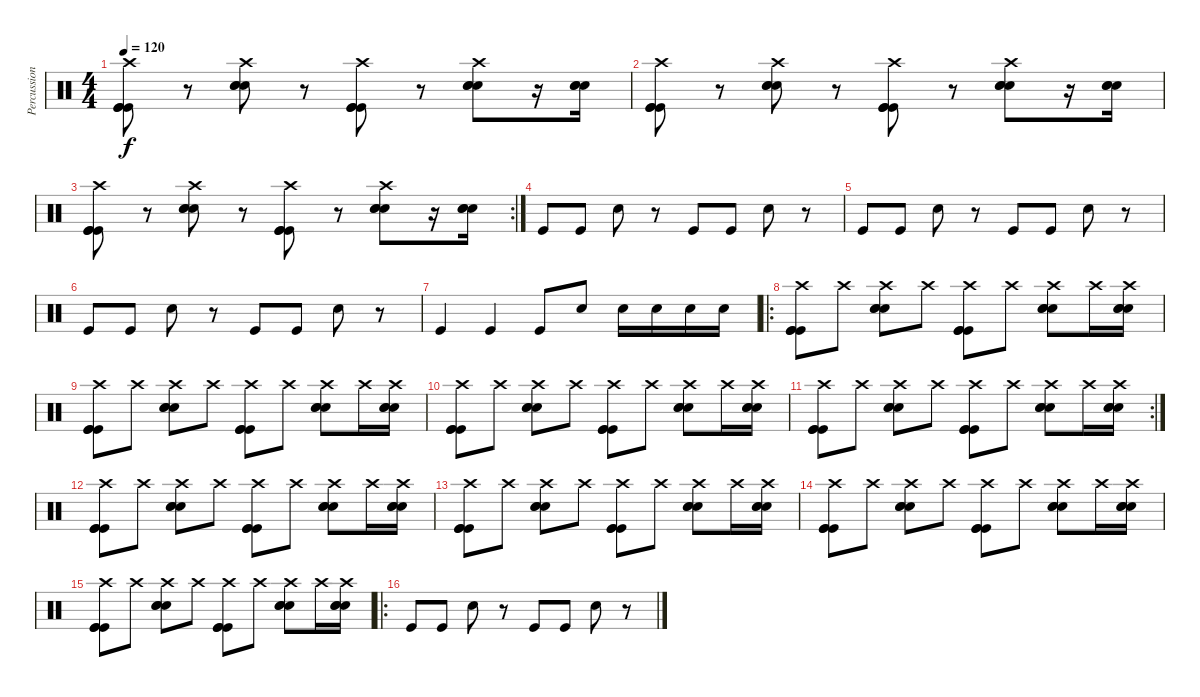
\track ("Percussions" "Percussion") {instrument percussion}
\staff {score}
\articulation defaults
\ts (4 4)
\tempo 120
\clef neutral
\ks c
("Crash high (hit)" "Kick (hit)" "Kick (hit)" "Kick (hit)").8{dy f} r.8 ("Crash high (hit)" "Electric Snare (hit)" "Electric Snare (hit)" "Electric Snare (hit)").8 r.8 ("Crash high (hit)" "Kick (hit)" "Kick (hit)" "Kick (hit)").8 r.8 ("Crash high (hit)" "Electric Snare (hit)" "Electric Snare (hit)" "Electric Snare (hit)").8 r.16 ("Electric Snare (hit)" "Electric Snare (hit)" "Electric Snare (hit)").16 |
("Crash high (hit)" "Kick (hit)" "Kick (hit)" "Kick (hit)").8 r.8 ("Crash high (hit)" "Electric Snare (hit)" "Electric Snare (hit)" "Electric Snare (hit)").8 r.8 ("Crash high (hit)" "Kick (hit)" "Kick (hit)" "Kick (hit)").8 r.8 ("Crash high (hit)" "Electric Snare (hit)" "Electric Snare (hit)" "Electric Snare (hit)").8 r.16 ("Electric Snare (hit)" "Electric Snare (hit)" "Electric Snare (hit)").16 |
\rc 2
("Crash high (hit)" "Kick (hit)" "Kick (hit)" "Kick (hit)").8 r.8 ("Crash high (hit)" "Electric Snare (hit)" "Electric Snare (hit)" "Electric Snare (hit)").8 r.8 ("Crash high (hit)" "Kick (hit)" "Kick (hit)" "Kick (hit)").8 r.8 ("Crash high (hit)" "Electric Snare (hit)" "Electric Snare (hit)" "Electric Snare (hit)").8 r.16 ("Electric Snare (hit)" "Electric Snare (hit)" "Electric Snare (hit)").16 |
"Kick (hit)".8 "Kick (hit)".8 "Electric Snare (hit)".8 r.8 "Kick (hit)".8 "Kick (hit)".8 "Electric Snare (hit)".8 r.8 |
"Kick (hit)".8 "Kick (hit)".8 "Electric Snare (hit)".8 r.8 "Kick (hit)".8 "Kick (hit)".8 "Electric Snare (hit)".8 r.8 |
"Kick (hit)".8 "Kick (hit)".8 "Electric Snare (hit)".8 r.8 "Kick (hit)".8 "Kick (hit)".8 "Electric Snare (hit)".8 r.8 |
"Kick (hit)".4 "Kick (hit)".4 "Kick (hit)".8 "Electric Snare (hit)".8 "Electric Snare (hit)".16 "Electric Snare (hit)".16 "Electric Snare (hit)".16 "Electric Snare (hit)".16 |
\ro
("Crash high (hit)" "Kick (hit)" "Kick (hit)" "Kick (hit)").8 "Crash high (hit)".8 ("Crash high (hit)" "Electric Snare (hit)" "Electric Snare (hit)" "Electric Snare (hit)").8 "Crash high (hit)".8 ("Crash high (hit)" "Kick (hit)" "Kick (hit)" "Kick (hit)").8 "Crash high (hit)".8 ("Crash high (hit)" "Electric Snare (hit)" "Electric Snare (hit)" "Electric Snare (hit)").8 "Crash high (hit)".16 ("Crash high (hit)" "Electric Snare (hit)" "Electric Snare (hit)" "Electric Snare (hit)").16 |
("Crash high (hit)" "Kick (hit)" "Kick (hit)" "Kick (hit)").8 "Crash high (hit)".8 ("Crash high (hit)" "Electric Snare (hit)" "Electric Snare (hit)" "Electric Snare (hit)").8 "Crash high (hit)".8 ("Crash high (hit)" "Kick (hit)" "Kick (hit)" "Kick (hit)").8 "Crash high (hit)".8 ("Crash high (hit)" "Electric Snare (hit)" "Electric Snare (hit)" "Electric Snare (hit)").8 "Crash high (hit)".16 ("Crash high (hit)" "Electric Snare (hit)" "Electric Snare (hit)" "Electric Snare (hit)").16 |
("Crash high (hit)" "Kick (hit)" "Kick (hit)" "Kick (hit)").8 "Crash high (hit)".8 ("Crash high (hit)" "Electric Snare (hit)" "Electric Snare (hit)" "Electric Snare (hit)").8 "Crash high (hit)".8 ("Crash high (hit)" "Kick (hit)" "Kick (hit)" "Kick (hit)").8 "Crash high (hit)".8 ("Crash high (hit)" "Electric Snare (hit)" "Electric Snare (hit)" "Electric Snare (hit)").8 "Crash high (hit)".16 ("Crash high (hit)" "Electric Snare (hit)" "Electric Snare (hit)" "Electric Snare (hit)").16 |
\rc 2
("Crash high (hit)" "Kick (hit)" "Kick (hit)" "Kick (hit)").8 "Crash high (hit)".8 ("Crash high (hit)" "Electric Snare (hit)" "Electric Snare (hit)" "Electric Snare (hit)").8 "Crash high (hit)".8 ("Crash high (hit)" "Kick (hit)" "Kick (hit)" "Kick (hit)").8 "Crash high (hit)".8 ("Crash high (hit)" "Electric Snare (hit)" "Electric Snare (hit)" "Electric Snare (hit)").8 "Crash high (hit)".16 ("Crash high (hit)" "Electric Snare (hit)" "Electric Snare (hit)" "Electric Snare (hit)").16 |
("Crash high (hit)" "Kick (hit)" "Kick (hit)" "Kick (hit)").8 "Crash high (hit)".8 ("Crash high (hit)" "Electric Snare (hit)" "Electric Snare (hit)" "Electric Snare (hit)").8 "Crash high (hit)".8 ("Crash high (hit)" "Kick (hit)" "Kick (hit)" "Kick (hit)").8 "Crash high (hit)".8 ("Crash high (hit)" "Electric Snare (hit)" "Electric Snare (hit)" "Electric Snare (hit)").8 "Crash high (hit)".16 ("Crash high (hit)" "Electric Snare (hit)" "Electric Snare (hit)" "Electric Snare (hit)").16 |
("Crash high (hit)" "Kick (hit)" "Kick (hit)" "Kick (hit)").8 "Crash high (hit)".8 ("Crash high (hit)" "Electric Snare (hit)" "Electric Snare (hit)" "Electric Snare (hit)").8 "Crash high (hit)".8 ("Crash high (hit)" "Kick (hit)" "Kick (hit)" "Kick (hit)").8 "Crash high (hit)".8 ("Crash high (hit)" "Electric Snare (hit)" "Electric Snare (hit)" "Electric Snare (hit)").8 "Crash high (hit)".16 ("Crash high (hit)" "Electric Snare (hit)" "Electric Snare (hit)" "Electric Snare (hit)").16 |
("Crash high (hit)" "Kick (hit)" "Kick (hit)" "Kick (hit)").8 "Crash high (hit)".8 ("Crash high (hit)" "Electric Snare (hit)" "Electric Snare (hit)" "Electric Snare (hit)").8 "Crash high (hit)".8 ("Crash high (hit)" "Kick (hit)" "Kick (hit)" "Kick (hit)").8 "Crash high (hit)".8 ("Crash high (hit)" "Electric Snare (hit)" "Electric Snare (hit)" "Electric Snare (hit)").8 "Crash high (hit)".16 ("Crash high (hit)" "Electric Snare (hit)" "Electric Snare (hit)" "Electric Snare (hit)").16 |
("Crash high (hit)" "Kick (hit)" "Kick (hit)" "Kick (hit)").8 "Crash high (hit)".8 ("Crash high (hit)" "Electric Snare (hit)" "Electric Snare (hit)" "Electric Snare (hit)").8 "Crash high (hit)".8 ("Crash high (hit)" "Kick (hit)" "Kick (hit)" "Kick (hit)").8 "Crash high (hit)".8 ("Crash high (hit)" "Electric Snare (hit)" "Electric Snare (hit)" "Electric Snare (hit)").8 "Crash high (hit)".16 ("Crash high (hit)" "Electric Snare (hit)" "Electric Snare (hit)" "Electric Snare (hit)").16 |
\ro "Kick (hit)".8 "Kick (hit)".8 "Electric Snare (hit)".8
r.8 "Kick (hit)".8 "Kick (hit)".8 "Electric Snare (hit)".8 r.8
